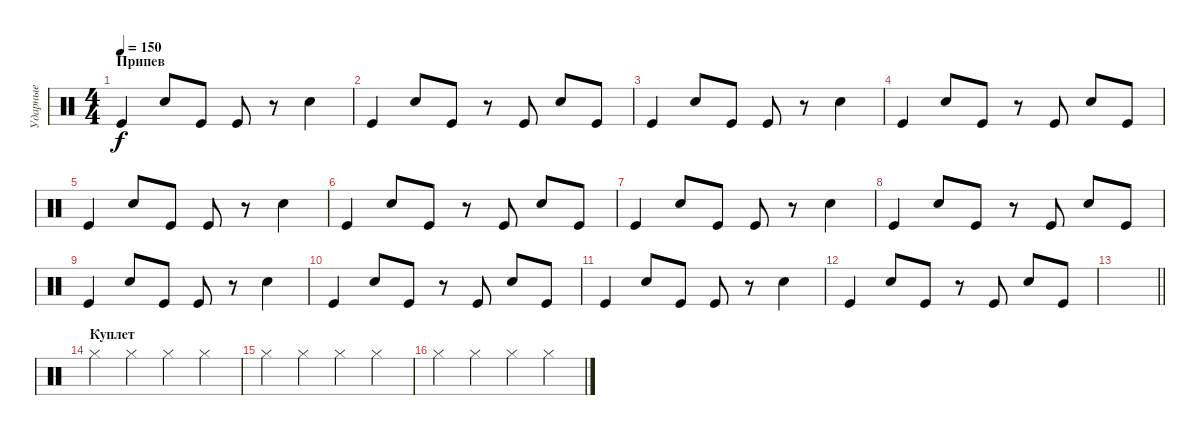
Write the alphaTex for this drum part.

\track ("Ударные" "Ударные") {instrument percussion}
\staff {score}
\articulation defaults
\ts (4 4)
\section ("" "Припев")
\tempo 150
\clef neutral
\ks c "Kick (hit)".4{dy f} "Snare (hit) 2".8 "Kick (hit)".8 "Kick (hit)".8
r.8 "Snare (hit) 2".4 |
"Kick (hit)".4 "Snare (hit) 2".8 "Kick (hit)".8 r.8 "Kick (hit)".8 "Snare (hit) 2".8 "Kick (hit)".8 |
"Kick (hit)".4 "Snare (hit) 2".8 "Kick (hit)".8 "Kick (hit)".8 r.8 "Snare (hit) 2".4 |
"Kick (hit)".4 "Snare (hit) 2".8 "Kick (hit)".8 r.8 "Kick (hit)".8 "Snare (hit) 2".8 "Kick (hit)".8 |
"Kick (hit)".4 "Snare (hit) 2".8 "Kick (hit)".8 "Kick (hit)".8 r.8 "Snare (hit) 2".4 |
"Kick (hit)".4 "Snare (hit) 2".8 "Kick (hit)".8 r.8 "Kick (hit)".8 "Snare (hit) 2".8 "Kick (hit)".8 |
"Kick (hit)".4 "Snare (hit) 2".8 "Kick (hit)".8 "Kick (hit)".8 r.8 "Snare (hit) 2".4 |
"Kick (hit)".4 "Snare (hit) 2".8 "Kick (hit)".8 r.8 "Kick (hit)".8 "Snare (hit) 2".8 "Kick (hit)".8 |
"Kick (hit)".4 "Snare (hit) 2".8 "Kick (hit)".8 "Kick (hit)".8 r.8 "Snare (hit) 2".4 |
"Kick (hit)".4 "Snare (hit) 2".8 "Kick (hit)".8 r.8 "Kick (hit)".8 "Snare (hit) 2".8 "Kick (hit)".8 |
"Kick (hit)".4 "Snare (hit) 2".8 "Kick (hit)".8 "Kick (hit)".8 r.8 "Snare (hit) 2".4 |
"Kick (hit)".4 "Snare (hit) 2".8 "Kick (hit)".8 r.8 "Kick (hit)".8 "Snare (hit) 2".8 "Kick (hit)".8 |
\barLineRight lightlight
|
\section ("" "Куплет")
"Hi-Hat (closed)".4 "Hi-Hat (closed)".4 "Hi-Hat (closed)".4 "Hi-Hat (closed)".4 |
"Hi-Hat (closed)".4 "Hi-Hat (closed)".4 "Hi-Hat (closed)".4 "Hi-Hat (closed)".4 |
"Hi-Hat (closed)".4 "Hi-Hat (closed)".4 "Hi-Hat (closed)".4 "Hi-Hat (closed)".4
